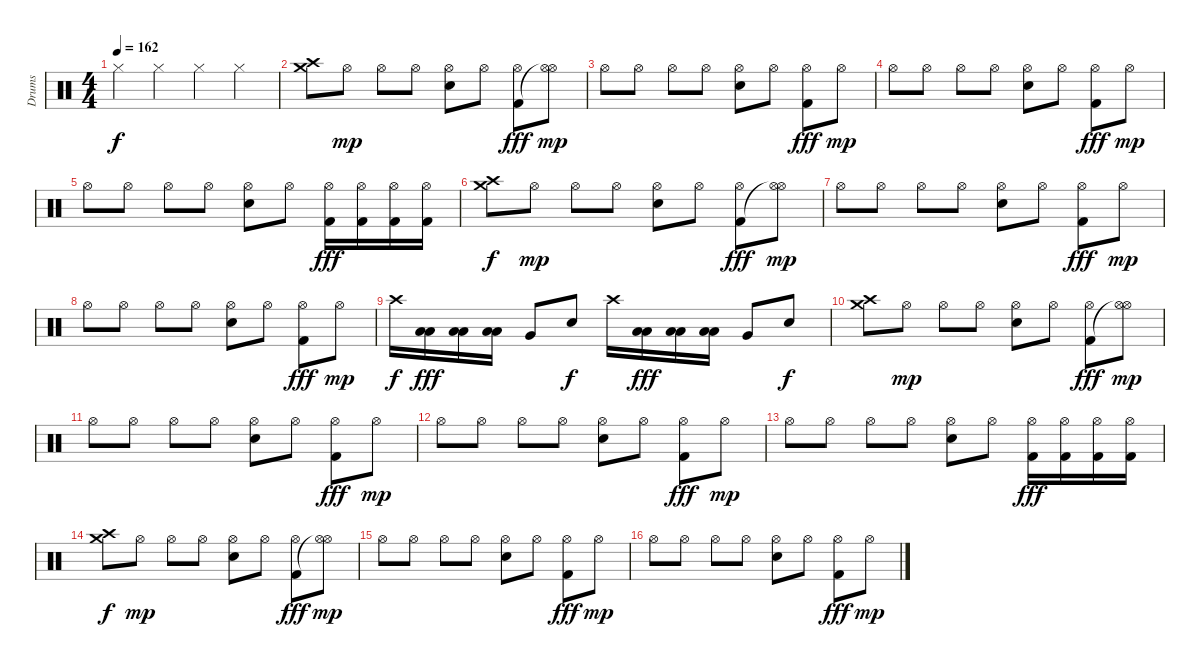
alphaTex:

\track ("Drums" "Drums") {instrument percussion}
\staff {score}
\articulation defaults
\ts (4 4)
\tempo 162
\clef neutral
\ks c "Hi-Hat (closed)".4{dy f} "Hi-Hat (closed)".4 "Hi-Hat (closed)".4 "Hi-Hat (closed)".4
|
("Crash high (hit)" "Crash medium (hit)").8 "Hi-Hat (open)".8{dy mp} "Hi-Hat (open)".8 "Hi-Hat (open)".8 ("Electric Snare (hit)" "Hi-Hat (open)").8 "Hi-Hat (open)".8 ("Hi-Hat (open)" "Kick (hit) 2").8{dy fff} ("Hi-Hat (open)" "Hi-Hat (open)"{t}).8{dy mp} |
"Hi-Hat (open)".8 "Hi-Hat (open)".8 "Hi-Hat (open)".8 "Hi-Hat (open)".8 ("Electric Snare (hit)" "Hi-Hat (open)").8 "Hi-Hat (open)".8 ("Hi-Hat (open)" "Kick (hit) 2").8{dy fff} "Hi-Hat (open)".8{dy mp} |
"Hi-Hat (open)".8 "Hi-Hat (open)".8 "Hi-Hat (open)".8 "Hi-Hat (open)".8 ("Electric Snare (hit)" "Hi-Hat (open)").8 "Hi-Hat (open)".8 ("Hi-Hat (open)" "Kick (hit) 2").8{dy fff} "Hi-Hat (open)".8{dy mp} |
"Hi-Hat (open)".8 "Hi-Hat (open)".8 "Hi-Hat (open)".8 "Hi-Hat (open)".8 ("Electric Snare (hit)" "Hi-Hat (open)").8 "Hi-Hat (open)".8 ("Hi-Hat (open)" "Kick (hit) 2").16{dy fff} ("Hi-Hat (open)" "Kick (hit) 2").16 ("Hi-Hat (open)" "Kick (hit) 2").16 ("Hi-Hat (open)" "Kick (hit) 2").16 |
("Crash high (hit)" "Crash medium (hit)").8{dy f} "Hi-Hat (open)".8{dy mp} "Hi-Hat (open)".8 "Hi-Hat (open)".8 ("Electric Snare (hit)" "Hi-Hat (open)").8 "Hi-Hat (open)".8 ("Hi-Hat (open)" "Kick (hit) 2").8{dy fff} ("Hi-Hat (open)" "Hi-Hat (open)"{t}).8{dy mp} |
"Hi-Hat (open)".8 "Hi-Hat (open)".8 "Hi-Hat (open)".8 "Hi-Hat (open)".8 ("Electric Snare (hit)" "Hi-Hat (open)").8 "Hi-Hat (open)".8 ("Hi-Hat (open)" "Kick (hit) 2").8{dy fff} "Hi-Hat (open)".8{dy mp} |
"Hi-Hat (open)".8 "Hi-Hat (open)".8 "Hi-Hat (open)".8 "Hi-Hat (open)".8 ("Electric Snare (hit)" "Hi-Hat (open)").8 "Hi-Hat (open)".8 ("Hi-Hat (open)" "Kick (hit) 2").8{dy fff} "Hi-Hat (open)".8{dy mp} |
"Crash high (hit)".16{dy f} ("Low Tom (hit)" "Low Tom (hit)").16{dy fff} ("Low Tom (hit)" "Low Tom (hit)").16 ("Low Tom (hit)" "Low Tom (hit)").16 "Very Low Tom (hit)".8 "Electric Snare (hit)".8{dy f} "Crash high (hit)".16 ("Low Tom (hit)" "Low Tom (hit)").16{dy fff} ("Low Tom (hit)" "Low Tom (hit)").16 ("Low Tom (hit)" "Low Tom (hit)").16 "Very Low Tom (hit)".8 "Electric Snare (hit)".8{dy f} |
("Crash high (hit)" "Crash medium (hit)").8 "Hi-Hat (open)".8{dy mp} "Hi-Hat (open)".8 "Hi-Hat (open)".8 ("Electric Snare (hit)" "Hi-Hat (open)").8 "Hi-Hat (open)".8 ("Hi-Hat (open)" "Kick (hit) 2").8{dy fff} ("Hi-Hat (open)" "Hi-Hat (open)"{t}).8{dy mp} |
"Hi-Hat (open)".8 "Hi-Hat (open)".8 "Hi-Hat (open)".8 "Hi-Hat (open)".8 ("Electric Snare (hit)" "Hi-Hat (open)").8 "Hi-Hat (open)".8 ("Hi-Hat (open)" "Kick (hit) 2").8{dy fff} "Hi-Hat (open)".8{dy mp} |
"Hi-Hat (open)".8 "Hi-Hat (open)".8 "Hi-Hat (open)".8 "Hi-Hat (open)".8 ("Electric Snare (hit)" "Hi-Hat (open)").8 "Hi-Hat (open)".8 ("Hi-Hat (open)" "Kick (hit) 2").8{dy fff} "Hi-Hat (open)".8{dy mp} |
"Hi-Hat (open)".8 "Hi-Hat (open)".8 "Hi-Hat (open)".8 "Hi-Hat (open)".8 ("Electric Snare (hit)" "Hi-Hat (open)").8 "Hi-Hat (open)".8 ("Hi-Hat (open)" "Kick (hit) 2").16{dy fff} ("Hi-Hat (open)" "Kick (hit) 2").16 ("Hi-Hat (open)" "Kick (hit) 2").16 ("Hi-Hat (open)" "Kick (hit) 2").16 |
("Crash high (hit)" "Crash medium (hit)").8{dy f} "Hi-Hat (open)".8{dy mp} "Hi-Hat (open)".8 "Hi-Hat (open)".8 ("Electric Snare (hit)" "Hi-Hat (open)").8 "Hi-Hat (open)".8 ("Hi-Hat (open)" "Kick (hit) 2").8{dy fff} ("Hi-Hat (open)" "Hi-Hat (open)"{t}).8{dy mp} |
"Hi-Hat (open)".8 "Hi-Hat (open)".8 "Hi-Hat (open)".8 "Hi-Hat (open)".8 ("Electric Snare (hit)" "Hi-Hat (open)").8 "Hi-Hat (open)".8 ("Hi-Hat (open)" "Kick (hit) 2").8{dy fff} "Hi-Hat (open)".8{dy mp} |
"Hi-Hat (open)".8 "Hi-Hat (open)".8 "Hi-Hat (open)".8 "Hi-Hat (open)".8 ("Electric Snare (hit)" "Hi-Hat (open)").8 "Hi-Hat (open)".8 ("Hi-Hat (open)" "Kick (hit) 2").8{dy fff} "Hi-Hat (open)".8{dy mp}
